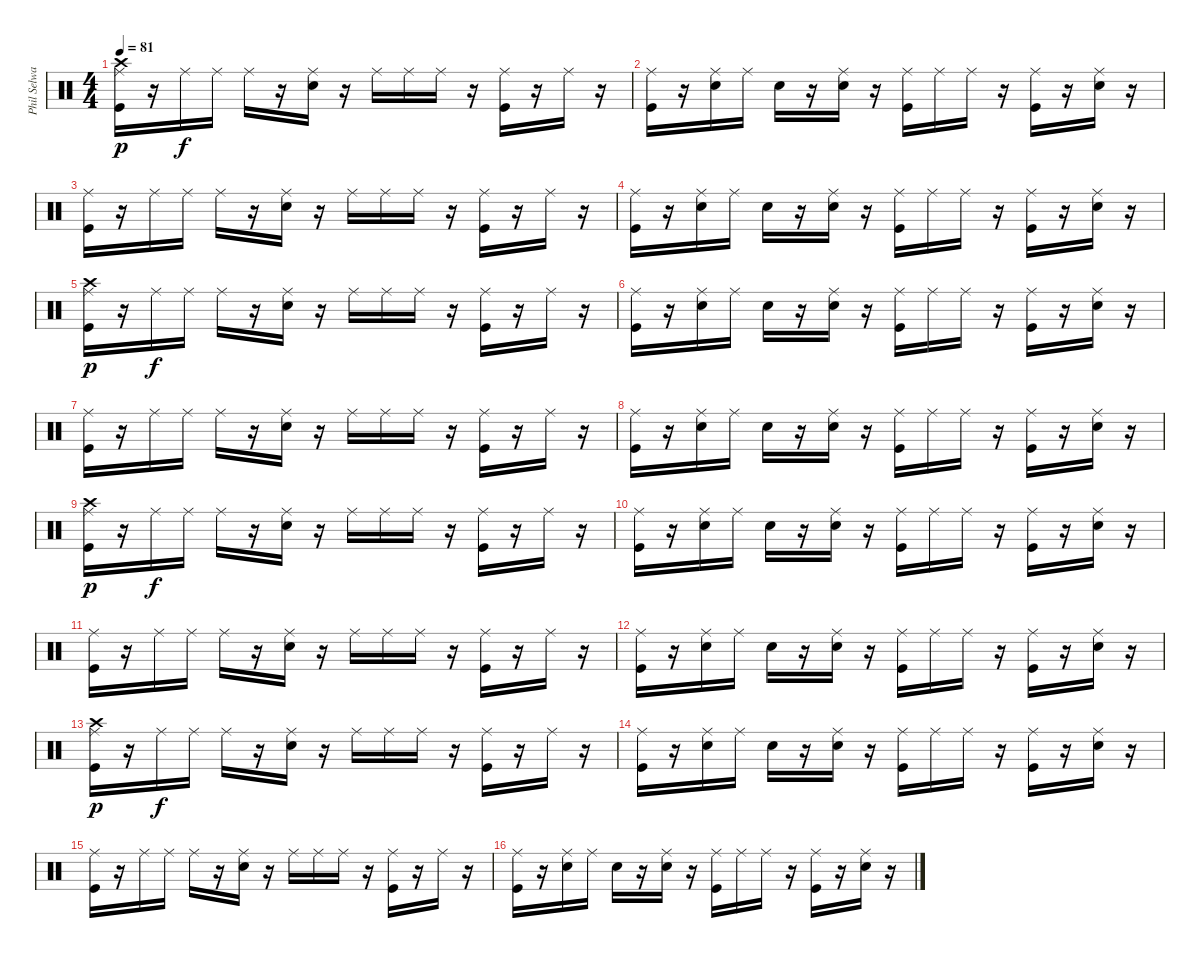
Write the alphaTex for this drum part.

\track ("Phil Selway (Percussions)" "Phil Selwa") {instrument percussion}
\staff {score}
\articulation defaults
\ts (4 4)
\tempo 81
\clef neutral
\ks c
("Ride (middle)" "Crash high (hit)" "Kick (hit)").16{dy p} r.16 "Ride (middle)".16{dy f} "Ride (middle)".16 "Ride (middle)".16 r.16 ("Ride (middle)" "Electric Snare (hit)").16 r.16 "Ride (middle)".16 "Ride (middle)".16 "Ride (middle)".16 r.16 ("Ride (middle)" "Kick (hit)").16 r.16 "Ride (middle)".16 r.16 |
("Ride (middle)" "Kick (hit)").16 r.16 ("Ride (middle)" "Electric Snare (hit)").16 "Ride (middle)".16 "Snare (hit)".16 r.16 ("Ride (middle)" "Electric Snare (hit)").16 r.16 ("Ride (middle)" "Kick (hit)").16 "Ride (middle)".16 "Ride (middle)".16 r.16 ("Ride (middle)" "Kick (hit)").16 r.16 ("Ride (middle)" "Electric Snare (hit)").16 r.16 |
("Ride (middle)" "Kick (hit)").16 r.16 "Ride (middle)".16 "Ride (middle)".16 "Ride (middle)".16 r.16 ("Ride (middle)" "Electric Snare (hit)").16 r.16 "Ride (middle)".16 "Ride (middle)".16 "Ride (middle)".16 r.16 ("Ride (middle)" "Kick (hit)").16 r.16 "Ride (middle)".16 r.16 |
("Ride (middle)" "Kick (hit)").16 r.16 ("Ride (middle)" "Electric Snare (hit)").16 "Ride (middle)".16 "Snare (hit)".16 r.16 ("Ride (middle)" "Electric Snare (hit)").16 r.16 ("Ride (middle)" "Kick (hit)").16 "Ride (middle)".16 "Ride (middle)".16 r.16 ("Ride (middle)" "Kick (hit)").16 r.16 ("Ride (middle)" "Electric Snare (hit)").16 r.16 |
("Ride (middle)" "Crash high (hit)" "Kick (hit)").16{dy p} r.16 "Ride (middle)".16{dy f} "Ride (middle)".16 "Ride (middle)".16 r.16 ("Ride (middle)" "Electric Snare (hit)").16 r.16 "Ride (middle)".16 "Ride (middle)".16 "Ride (middle)".16 r.16 ("Ride (middle)" "Kick (hit)").16 r.16 "Ride (middle)".16 r.16 |
("Ride (middle)" "Kick (hit)").16 r.16 ("Ride (middle)" "Electric Snare (hit)").16 "Ride (middle)".16 "Snare (hit)".16 r.16 ("Ride (middle)" "Electric Snare (hit)").16 r.16 ("Ride (middle)" "Kick (hit)").16 "Ride (middle)".16 "Ride (middle)".16 r.16 ("Ride (middle)" "Kick (hit)").16 r.16 ("Ride (middle)" "Electric Snare (hit)").16 r.16 |
("Ride (middle)" "Kick (hit)").16 r.16 "Ride (middle)".16 "Ride (middle)".16 "Ride (middle)".16 r.16 ("Ride (middle)" "Electric Snare (hit)").16 r.16 "Ride (middle)".16 "Ride (middle)".16 "Ride (middle)".16 r.16 ("Ride (middle)" "Kick (hit)").16 r.16 "Ride (middle)".16 r.16 |
("Ride (middle)" "Kick (hit)").16 r.16 ("Ride (middle)" "Electric Snare (hit)").16 "Ride (middle)".16 "Snare (hit)".16 r.16 ("Ride (middle)" "Electric Snare (hit)").16 r.16 ("Ride (middle)" "Kick (hit)").16 "Ride (middle)".16 "Ride (middle)".16 r.16 ("Ride (middle)" "Kick (hit)").16 r.16 ("Ride (middle)" "Electric Snare (hit)").16 r.16 |
("Ride (middle)" "Crash high (hit)" "Kick (hit)").16{dy p} r.16 "Ride (middle)".16{dy f} "Ride (middle)".16 "Ride (middle)".16 r.16 ("Ride (middle)" "Electric Snare (hit)").16 r.16 "Ride (middle)".16 "Ride (middle)".16 "Ride (middle)".16 r.16 ("Ride (middle)" "Kick (hit)").16 r.16 "Ride (middle)".16 r.16 |
("Ride (middle)" "Kick (hit)").16 r.16 ("Ride (middle)" "Electric Snare (hit)").16 "Ride (middle)".16 "Snare (hit)".16 r.16 ("Ride (middle)" "Electric Snare (hit)").16 r.16 ("Ride (middle)" "Kick (hit)").16 "Ride (middle)".16 "Ride (middle)".16 r.16 ("Ride (middle)" "Kick (hit)").16 r.16 ("Ride (middle)" "Electric Snare (hit)").16 r.16 |
("Ride (middle)" "Kick (hit)").16 r.16 "Ride (middle)".16 "Ride (middle)".16 "Ride (middle)".16 r.16 ("Ride (middle)" "Electric Snare (hit)").16 r.16 "Ride (middle)".16 "Ride (middle)".16 "Ride (middle)".16 r.16 ("Ride (middle)" "Kick (hit)").16 r.16 "Ride (middle)".16 r.16 |
("Ride (middle)" "Kick (hit)").16 r.16 ("Ride (middle)" "Electric Snare (hit)").16 "Ride (middle)".16 "Snare (hit)".16 r.16 ("Ride (middle)" "Electric Snare (hit)").16 r.16 ("Ride (middle)" "Kick (hit)").16 "Ride (middle)".16 "Ride (middle)".16 r.16 ("Ride (middle)" "Kick (hit)").16 r.16 ("Ride (middle)" "Electric Snare (hit)").16 r.16 |
("Ride (middle)" "Crash high (hit)" "Kick (hit)").16{dy p} r.16 "Ride (middle)".16{dy f} "Ride (middle)".16 "Ride (middle)".16 r.16 ("Ride (middle)" "Electric Snare (hit)").16 r.16 "Ride (middle)".16 "Ride (middle)".16 "Ride (middle)".16 r.16 ("Ride (middle)" "Kick (hit)").16 r.16 "Ride (middle)".16 r.16 |
("Ride (middle)" "Kick (hit)").16 r.16 ("Ride (middle)" "Electric Snare (hit)").16 "Ride (middle)".16 "Snare (hit)".16 r.16 ("Ride (middle)" "Electric Snare (hit)").16 r.16 ("Ride (middle)" "Kick (hit)").16 "Ride (middle)".16 "Ride (middle)".16 r.16 ("Ride (middle)" "Kick (hit)").16 r.16 ("Ride (middle)" "Electric Snare (hit)").16 r.16 |
("Ride (middle)" "Kick (hit)").16 r.16 "Ride (middle)".16 "Ride (middle)".16 "Ride (middle)".16 r.16 ("Ride (middle)" "Electric Snare (hit)").16 r.16 "Ride (middle)".16 "Ride (middle)".16 "Ride (middle)".16 r.16 ("Ride (middle)" "Kick (hit)").16 r.16 "Ride (middle)".16 r.16 |
("Ride (middle)" "Kick (hit)").16 r.16 ("Ride (middle)" "Electric Snare (hit)").16 "Ride (middle)".16 "Snare (hit)".16 r.16 ("Ride (middle)" "Electric Snare (hit)").16 r.16 ("Ride (middle)" "Kick (hit)").16 "Ride (middle)".16 "Ride (middle)".16 r.16 ("Ride (middle)" "Kick (hit)").16 r.16 ("Ride (middle)" "Electric Snare (hit)").16 r.16
